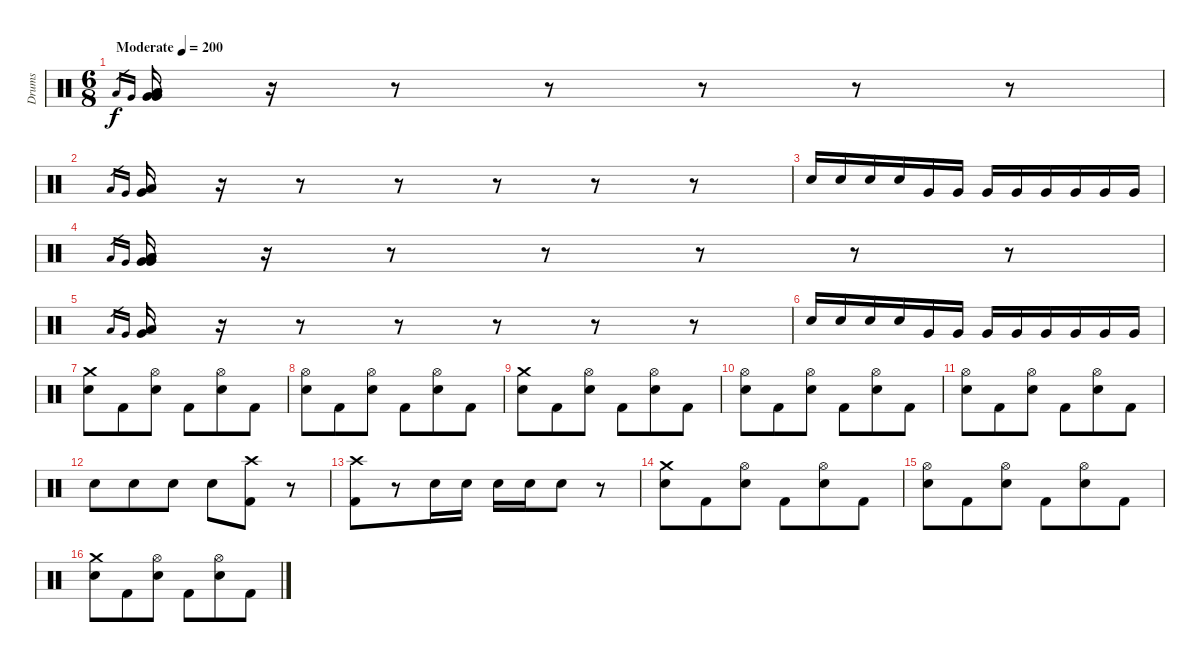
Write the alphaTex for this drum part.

\track ("Drums" "Drums") {instrument percussion}
\staff {score}
\articulation defaults
\ts (6 8)
\tempo (200 "Moderate")
\clef neutral
\ks c "Low Tom (hit)".16{gr dy f} "Very Low Tom (hit)".16{gr}
("Low Tom (hit)" "Very Low Tom (hit)" "Low Tom (hit)" "Very Low Tom (hit)").16 r.16 r.8 r.8 r.8 r.8 r.8 |
"Low Tom (hit)".16{gr} "Very Low Tom (hit)".16{gr} ("Low Tom (hit)" "Very Low Tom (hit)").16 r.16 r.8 r.8 r.8 r.8 r.8 |
"Electric Snare (hit)".16 "Electric Snare (hit)".16 "Electric Snare (hit)".16 "Electric Snare (hit)".16 "Very Low Tom (hit)".16 "Very Low Tom (hit)".16 "Very Low Tom (hit)".16 "Very Low Tom (hit)".16 "Very Low Tom (hit)".16 "Very Low Tom (hit)".16 "Very Low Tom (hit)".16 "Very Low Tom (hit)".16 |
"Low Tom (hit)".16{gr} "Very Low Tom (hit)".16{gr} ("Low Tom (hit)" "Very Low Tom (hit)" "Low Tom (hit)" "Very Low Tom (hit)").16 r.16 r.8 r.8 r.8 r.8 r.8 |
"Low Tom (hit)".16{gr} "Very Low Tom (hit)".16{gr} ("Low Tom (hit)" "Very Low Tom (hit)").16 r.16 r.8 r.8 r.8 r.8 r.8 |
"Electric Snare (hit)".16 "Electric Snare (hit)".16 "Electric Snare (hit)".16 "Electric Snare (hit)".16 "Very Low Tom (hit)".16 "Very Low Tom (hit)".16 "Very Low Tom (hit)".16 "Very Low Tom (hit)".16 "Very Low Tom (hit)".16 "Very Low Tom (hit)".16 "Very Low Tom (hit)".16 "Very Low Tom (hit)".16 |
("Crash medium (hit)" "Electric Snare (hit)").8 "Kick (hit) 2".8 ("Hi-Hat (open)" "Electric Snare (hit)").8 "Kick (hit) 2".8 ("Hi-Hat (open)" "Electric Snare (hit)").8 "Kick (hit) 2".8 |
("Hi-Hat (open)" "Electric Snare (hit)").8 "Kick (hit) 2".8 ("Hi-Hat (open)" "Electric Snare (hit)").8 "Kick (hit) 2".8 ("Hi-Hat (open)" "Electric Snare (hit)").8 "Kick (hit) 2".8 |
("Crash medium (hit)" "Electric Snare (hit)").8 "Kick (hit) 2".8 ("Hi-Hat (open)" "Electric Snare (hit)").8 "Kick (hit) 2".8 ("Hi-Hat (open)" "Electric Snare (hit)").8 "Kick (hit) 2".8 |
("Hi-Hat (open)" "Electric Snare (hit)").8 "Kick (hit) 2".8 ("Hi-Hat (open)" "Electric Snare (hit)").8 "Kick (hit) 2".8 ("Hi-Hat (open)" "Electric Snare (hit)").8 "Kick (hit) 2".8 |
("Hi-Hat (open)" "Electric Snare (hit)").8 "Kick (hit) 2".8 ("Hi-Hat (open)" "Electric Snare (hit)").8 "Kick (hit) 2".8 ("Hi-Hat (open)" "Electric Snare (hit)").8 "Kick (hit) 2".8 |
"Electric Snare (hit)".8 "Electric Snare (hit)".8 "Electric Snare (hit)".8 "Electric Snare (hit)".8 ("Crash high (hit)" "Kick (hit) 2").8 r.8 |
("Crash high (hit)" "Kick (hit) 2").8 r.8 "Electric Snare (hit)".16 "Electric Snare (hit)".16 "Electric Snare (hit)".16 "Electric Snare (hit)".16 "Electric Snare (hit)".8 r.8 |
("Crash medium (hit)" "Electric Snare (hit)").8 "Kick (hit) 2".8 ("Hi-Hat (open)" "Electric Snare (hit)").8 "Kick (hit) 2".8 ("Hi-Hat (open)" "Electric Snare (hit)").8 "Kick (hit) 2".8 |
("Hi-Hat (open)" "Electric Snare (hit)").8 "Kick (hit) 2".8 ("Hi-Hat (open)" "Electric Snare (hit)").8 "Kick (hit) 2".8 ("Hi-Hat (open)" "Electric Snare (hit)").8 "Kick (hit) 2".8 |
("Crash medium (hit)" "Electric Snare (hit)").8 "Kick (hit) 2".8 ("Hi-Hat (open)" "Electric Snare (hit)").8 "Kick (hit) 2".8 ("Hi-Hat (open)" "Electric Snare (hit)").8 "Kick (hit) 2".8
